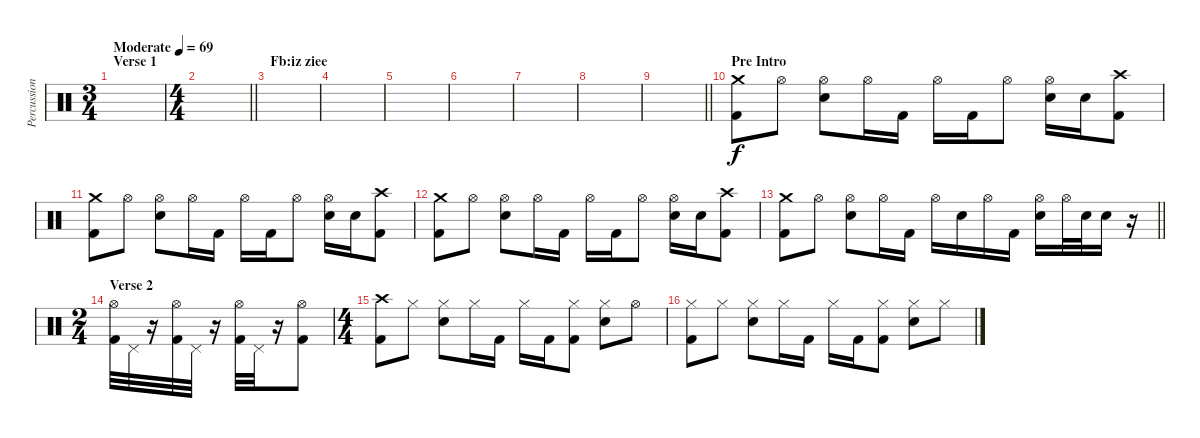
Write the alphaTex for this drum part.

\track ("Percussion" "Percussion") {instrument percussion}
\staff {score}
\articulation defaults
\ts (3 4)
\section ("" "Verse 1")
\tempo (69 "Moderate")
\clef neutral
\ks c
|
\ts (4 4)
\barLineRight lightlight
|
\section ("" "Fb:iz ziee")
|
|
|
|
|
|
\barLineRight lightlight
|
\section ("" "Pre Intro")
("Crash medium (hit)" "Kick (hit) 2").8 "Hi-Hat (open)".8 ("Hi-Hat (open)" "Electric Snare (hit)").8 "Hi-Hat (open)".16 "Kick (hit) 2".16 "Hi-Hat (open)".16 "Kick (hit) 2".16 "Hi-Hat (open)".8 ("Hi-Hat (open)" "Electric Snare (hit)").16 "Electric Snare (hit)".16 ("Crash high (hit)" "Kick (hit) 2").8 |
("Crash medium (hit)" "Kick (hit) 2").8 "Hi-Hat (open)".8 ("Hi-Hat (open)" "Electric Snare (hit)").8 "Hi-Hat (open)".16 "Kick (hit) 2".16 "Hi-Hat (open)".16 "Kick (hit) 2".16 "Hi-Hat (open)".8 ("Hi-Hat (open)" "Electric Snare (hit)").16 "Electric Snare (hit)".16 ("Crash high (hit)" "Kick (hit) 2").8 |
("Crash medium (hit)" "Kick (hit) 2").8 "Hi-Hat (open)".8 ("Hi-Hat (open)" "Electric Snare (hit)").8 "Hi-Hat (open)".16 "Kick (hit) 2".16 "Hi-Hat (open)".16 "Kick (hit) 2".16 "Hi-Hat (open)".8 ("Hi-Hat (open)" "Electric Snare (hit)").16 "Electric Snare (hit)".16 ("Crash high (hit)" "Kick (hit) 2").8 |
\barLineRight lightlight
("Crash medium (hit)" "Kick (hit) 2").8 "Hi-Hat (open)".8 ("Hi-Hat (open)" "Electric Snare (hit)").8 "Hi-Hat (open)".16 "Kick (hit) 2".16 "Hi-Hat (open)".16 "Electric Snare (hit)".16 "Hi-Hat (open)".16 "Kick (hit) 2".16 ("Hi-Hat (open)" "Electric Snare (hit)").16 "Hi-Hat (open)".32 "Electric Snare (hit)".32 "Electric Snare (hit)".16 r.16 |
\ts (2 4)
\section ("" "Verse 2")
("Hi-Hat (open)" "Kick (hit) 2").32 "Pedal Hi-Hat (hit)".32 r.16 ("Hi-Hat (open)" "Kick (hit) 2").32 "Pedal Hi-Hat (hit)".32 r.16 ("Hi-Hat (open)" "Kick (hit) 2").32 "Pedal Hi-Hat (hit)".32 r.16 ("Hi-Hat (open)" "Kick (hit) 2").8 |
\ts (4 4)
("Crash high (hit)" "Kick (hit) 2").8 "Hi-Hat (closed)".8 ("Hi-Hat (closed)" "Electric Snare (hit)").8 "Hi-Hat (closed)".16 "Kick (hit) 2".16 "Hi-Hat (closed)".16 "Kick (hit) 2".16 ("Hi-Hat (closed)" "Kick (hit) 2").8 ("Hi-Hat (closed)" "Electric Snare (hit)").8 "Hi-Hat (open)".8 |
("Hi-Hat (closed)" "Kick (hit) 2").8 "Hi-Hat (closed)".8 ("Hi-Hat (closed)" "Electric Snare (hit)").8 "Hi-Hat (closed)".16 "Kick (hit) 2".16 "Hi-Hat (closed)".16 "Kick (hit) 2".16 ("Hi-Hat (closed)" "Kick (hit) 2").8 ("Hi-Hat (closed)" "Electric Snare (hit)").8 "Hi-Hat (closed)".8
